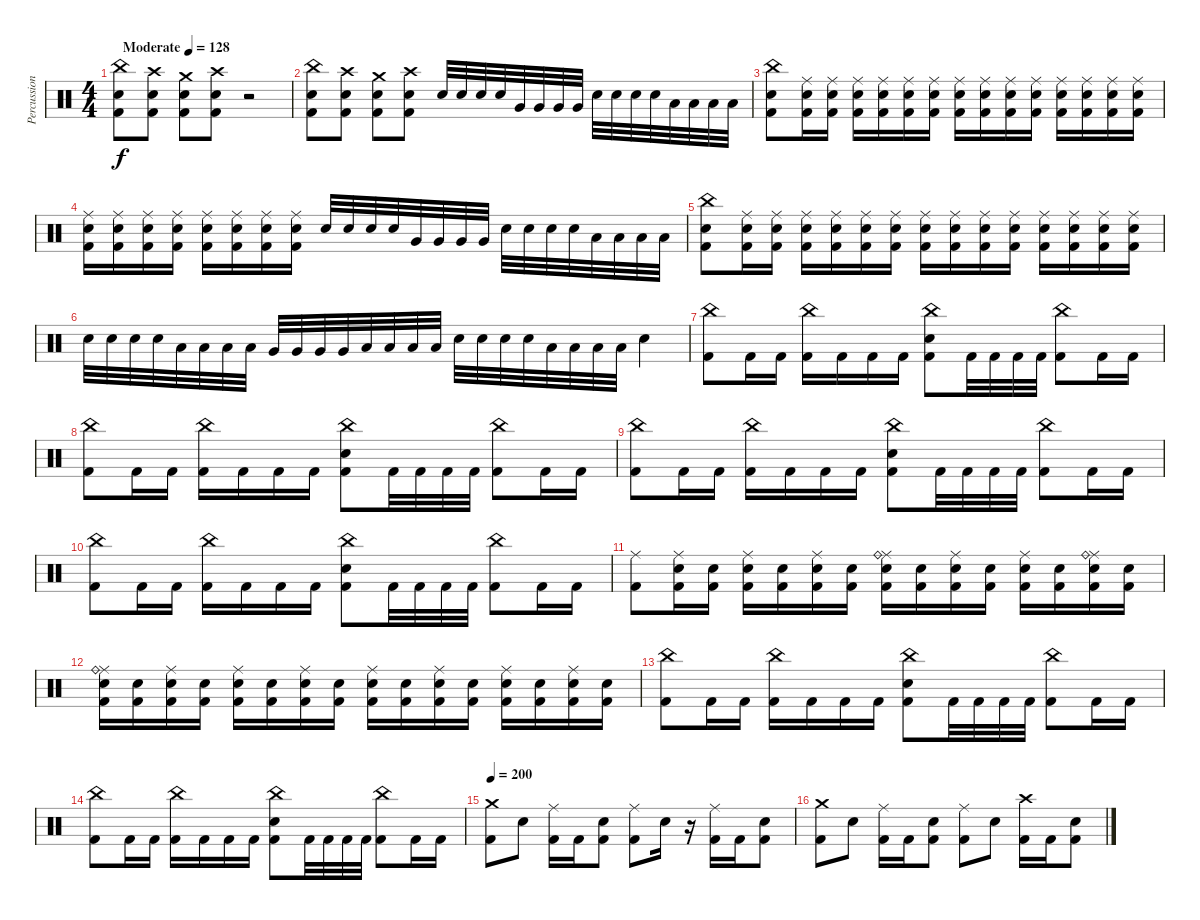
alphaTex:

\track ("Percussions" "Percussion") {instrument percussion}
\staff {score}
\articulation defaults
\ts (4 4)
\tempo (128 "Moderate")
\clef neutral
\ks c
("China (hit)" "Electric Snare (hit)" "Kick (hit) 2").8{dy f} ("Crash high (hit)" "Electric Snare (hit)" "Kick (hit) 2").8 ("Crash medium (hit)" "Electric Snare (hit)" "Kick (hit) 2").8 ("Crash high (hit)" "Electric Snare (hit)" "Kick (hit) 2").8 r.2 |
("China (hit)" "Electric Snare (hit)" "Kick (hit) 2").8 ("Crash high (hit)" "Electric Snare (hit)" "Kick (hit) 2").8 ("Crash medium (hit)" "Electric Snare (hit)" "Kick (hit) 2").8 ("Crash high (hit)" "Electric Snare (hit)" "Kick (hit) 2").8 "Electric Snare (hit)".32 "Electric Snare (hit)".32 "Electric Snare (hit)".32 "Electric Snare (hit)".32 "Very Low Tom (hit)".32 "Very Low Tom (hit)".32 "Very Low Tom (hit)".32 "Very Low Tom (hit)".32 "Electric Snare (hit)".32 "Electric Snare (hit)".32 "Electric Snare (hit)".32 "Electric Snare (hit)".32 "Low Floor Tom (hit)".32 "Low Floor Tom (hit)".32 "Low Floor Tom (hit)".32 "Low Floor Tom (hit)".32 |
("China (hit)" "Electric Snare (hit)" "Kick (hit) 2").8 ("Ride (middle)" "Electric Snare (hit)" "Kick (hit) 2").16 ("Ride (middle)" "Electric Snare (hit)" "Kick (hit) 2").16 ("Ride (middle)" "Electric Snare (hit)" "Kick (hit) 2").16 ("Ride (middle)" "Electric Snare (hit)" "Kick (hit) 2").16 ("Ride (middle)" "Electric Snare (hit)" "Kick (hit) 2").16 ("Ride (middle)" "Electric Snare (hit)" "Kick (hit) 2").16 ("Ride (middle)" "Electric Snare (hit)" "Kick (hit) 2").16 ("Ride (middle)" "Electric Snare (hit)" "Kick (hit) 2").16 ("Ride (middle)" "Electric Snare (hit)" "Kick (hit) 2").16 ("Ride (middle)" "Electric Snare (hit)" "Kick (hit) 2").16 ("Ride (middle)" "Electric Snare (hit)" "Kick (hit) 2").16 ("Ride (middle)" "Electric Snare (hit)" "Kick (hit) 2").16 ("Ride (middle)" "Electric Snare (hit)" "Kick (hit) 2").16 ("Ride (middle)" "Electric Snare (hit)" "Kick (hit) 2").16 |
("Ride (middle)" "Electric Snare (hit)" "Kick (hit) 2").16 ("Ride (middle)" "Electric Snare (hit)" "Kick (hit) 2").16 ("Ride (middle)" "Electric Snare (hit)" "Kick (hit) 2").16 ("Ride (middle)" "Electric Snare (hit)" "Kick (hit) 2").16 ("Ride (middle)" "Electric Snare (hit)" "Kick (hit) 2").16 ("Ride (middle)" "Electric Snare (hit)" "Kick (hit) 2").16 ("Ride (middle)" "Electric Snare (hit)" "Kick (hit) 2").16 ("Ride (middle)" "Electric Snare (hit)" "Kick (hit) 2").16 "Electric Snare (hit)".32 "Electric Snare (hit)".32 "Electric Snare (hit)".32 "Electric Snare (hit)".32 "Very Low Tom (hit)".32 "Very Low Tom (hit)".32 "Very Low Tom (hit)".32 "Very Low Tom (hit)".32 "Electric Snare (hit)".32 "Electric Snare (hit)".32 "Electric Snare (hit)".32 "Electric Snare (hit)".32 "Low Floor Tom (hit)".32 "Low Floor Tom (hit)".32 "Low Floor Tom (hit)".32 "Low Floor Tom (hit)".32 |
("China (hit)" "Electric Snare (hit)" "Kick (hit) 2").8 ("Ride (middle)" "Electric Snare (hit)" "Kick (hit) 2").16 ("Ride (middle)" "Electric Snare (hit)" "Kick (hit) 2").16 ("Ride (middle)" "Electric Snare (hit)" "Kick (hit) 2").16 ("Ride (middle)" "Electric Snare (hit)" "Kick (hit) 2").16 ("Ride (middle)" "Electric Snare (hit)" "Kick (hit) 2").16 ("Ride (middle)" "Electric Snare (hit)" "Kick (hit) 2").16 ("Ride (middle)" "Electric Snare (hit)" "Kick (hit) 2").16 ("Ride (middle)" "Electric Snare (hit)" "Kick (hit) 2").16 ("Ride (middle)" "Electric Snare (hit)" "Kick (hit) 2").16 ("Ride (middle)" "Electric Snare (hit)" "Kick (hit) 2").16 ("Ride (middle)" "Electric Snare (hit)" "Kick (hit) 2").16 ("Ride (middle)" "Electric Snare (hit)" "Kick (hit) 2").16 ("Ride (middle)" "Electric Snare (hit)" "Kick (hit) 2").16 ("Ride (middle)" "Electric Snare (hit)" "Kick (hit) 2").16 |
"Electric Snare (hit)".32 "Electric Snare (hit)".32 "Electric Snare (hit)".32 "Electric Snare (hit)".32 "Low Tom (hit)".32 "Low Tom (hit)".32 "Low Tom (hit)".32 "Low Tom (hit)".32 "Very Low Tom (hit)".32 "Very Low Tom (hit)".32 "Very Low Tom (hit)".32 "Very Low Tom (hit)".32 "Low Floor Tom (hit)".32 "Low Floor Tom (hit)".32 "Low Floor Tom (hit)".32 "Low Floor Tom (hit)".32 "Electric Snare (hit)".32 "Electric Snare (hit)".32 "Electric Snare (hit)".32 "Electric Snare (hit)".32 "Low Tom (hit)".32 "Low Tom (hit)".32 "Low Tom (hit)".32 "Low Tom (hit)".32 "Electric Snare (hit)".4 |
("China (hit)" "Kick (hit) 2").8 "Kick (hit) 2".16 "Kick (hit) 2".16 ("China (hit)" "Kick (hit) 2").16 "Kick (hit) 2".16 "Kick (hit) 2".16 "Kick (hit) 2".16 ("China (hit)" "Electric Snare (hit)" "Kick (hit) 2").8 "Kick (hit) 2".32 "Kick (hit) 2".32 "Kick (hit) 2".32 "Kick (hit) 2".32 ("China (hit)" "Kick (hit) 2").8 "Kick (hit) 2".16 "Kick (hit) 2".16 |
("China (hit)" "Kick (hit) 2").8 "Kick (hit) 2".16 "Kick (hit) 2".16 ("China (hit)" "Kick (hit) 2").16 "Kick (hit) 2".16 "Kick (hit) 2".16 "Kick (hit) 2".16 ("China (hit)" "Electric Snare (hit)" "Kick (hit) 2").8 "Kick (hit) 2".32 "Kick (hit) 2".32 "Kick (hit) 2".32 "Kick (hit) 2".32 ("China (hit)" "Kick (hit) 2").8 "Kick (hit) 2".16 "Kick (hit) 2".16 |
("China (hit)" "Kick (hit) 2").8 "Kick (hit) 2".16 "Kick (hit) 2".16 ("China (hit)" "Kick (hit) 2").16 "Kick (hit) 2".16 "Kick (hit) 2".16 "Kick (hit) 2".16 ("China (hit)" "Electric Snare (hit)" "Kick (hit) 2").8 "Kick (hit) 2".32 "Kick (hit) 2".32 "Kick (hit) 2".32 "Kick (hit) 2".32 ("China (hit)" "Kick (hit) 2").8 "Kick (hit) 2".16 "Kick (hit) 2".16 |
("China (hit)" "Kick (hit) 2").8 "Kick (hit) 2".16 "Kick (hit) 2".16 ("China (hit)" "Kick (hit) 2").16 "Kick (hit) 2".16 "Kick (hit) 2".16 "Kick (hit) 2".16 ("China (hit)" "Electric Snare (hit)" "Kick (hit) 2").8 "Kick (hit) 2".32 "Kick (hit) 2".32 "Kick (hit) 2".32 "Kick (hit) 2".32 ("China (hit)" "Kick (hit) 2").8 "Kick (hit) 2".16 "Kick (hit) 2".16 |
("Ride (middle)" "Kick (hit) 2").8 ("Ride (middle)" "Electric Snare (hit)" "Kick (hit) 2").16 ("Electric Snare (hit)" "Kick (hit) 2").16 ("Ride (middle)" "Electric Snare (hit)" "Kick (hit) 2").16 ("Electric Snare (hit)" "Kick (hit) 2").16 ("Ride (middle)" "Electric Snare (hit)" "Kick (hit) 2").16 ("Electric Snare (hit)" "Kick (hit) 2").16 ("Ride (middle)" "Ride (bell)" "Electric Snare (hit)" "Kick (hit) 2").16 ("Electric Snare (hit)" "Kick (hit) 2").16 ("Ride (middle)" "Electric Snare (hit)" "Kick (hit) 2").16 ("Electric Snare (hit)" "Kick (hit) 2").16 ("Ride (middle)" "Electric Snare (hit)" "Kick (hit) 2").16 ("Electric Snare (hit)" "Kick (hit) 2").16 ("Ride (middle)" "Ride (bell)" "Electric Snare (hit)" "Kick (hit) 2").16 ("Electric Snare (hit)" "Kick (hit) 2").16 |
("Ride (middle)" "Ride (bell)" "Electric Snare (hit)" "Kick (hit) 2").16 ("Electric Snare (hit)" "Kick (hit) 2").16 ("Ride (middle)" "Electric Snare (hit)" "Kick (hit) 2").16 ("Electric Snare (hit)" "Kick (hit) 2").16 ("Ride (middle)" "Electric Snare (hit)" "Kick (hit) 2").16 ("Electric Snare (hit)" "Kick (hit) 2").16 ("Ride (middle)" "Electric Snare (hit)" "Kick (hit) 2").16 ("Electric Snare (hit)" "Kick (hit) 2").16 ("Ride (middle)" "Electric Snare (hit)" "Kick (hit) 2").16 ("Electric Snare (hit)" "Kick (hit) 2").16 ("Ride (middle)" "Electric Snare (hit)" "Kick (hit) 2").16 ("Electric Snare (hit)" "Kick (hit) 2").16 ("Ride (middle)" "Electric Snare (hit)" "Kick (hit) 2").16 ("Electric Snare (hit)" "Kick (hit) 2").16 ("Ride (middle)" "Electric Snare (hit)" "Kick (hit) 2").16 ("Electric Snare (hit)" "Kick (hit) 2").16 |
("China (hit)" "Kick (hit) 2").8 "Kick (hit) 2".16 "Kick (hit) 2".16 ("China (hit)" "Kick (hit) 2").16 "Kick (hit) 2".16 "Kick (hit) 2".16 "Kick (hit) 2".16 ("China (hit)" "Electric Snare (hit)" "Kick (hit) 2").8 "Kick (hit) 2".32 "Kick (hit) 2".32 "Kick (hit) 2".32 "Kick (hit) 2".32 ("China (hit)" "Kick (hit) 2").8 "Kick (hit) 2".16 "Kick (hit) 2".16 |
("China (hit)" "Kick (hit) 2").8 "Kick (hit) 2".16 "Kick (hit) 2".16 ("China (hit)" "Kick (hit) 2").16 "Kick (hit) 2".16 "Kick (hit) 2".16 "Kick (hit) 2".16 ("China (hit)" "Electric Snare (hit)" "Kick (hit) 2").8 "Kick (hit) 2".32 "Kick (hit) 2".32 "Kick (hit) 2".32 "Kick (hit) 2".32 ("China (hit)" "Kick (hit) 2").8 "Kick (hit) 2".16 "Kick (hit) 2".16 |
\tempo 200
("Crash medium (hit)" "Kick (hit) 2").8 "Electric Snare (hit)".8 ("Ride (middle)" "Kick (hit) 2").16 "Kick (hit) 2".16 ("Electric Snare (hit)" "Kick (hit) 2").8 ("Ride (middle)" "Kick (hit) 2").8 "Electric Snare (hit)".16 r.16 ("Ride (middle)" "Kick (hit) 2").16 "Kick (hit) 2".16 ("Electric Snare (hit)" "Kick (hit) 2").8 |
("Crash medium (hit)" "Kick (hit) 2").8 "Electric Snare (hit)".8 ("Ride (middle)" "Kick (hit) 2").16 "Kick (hit) 2".16 ("Electric Snare (hit)" "Kick (hit) 2").8 ("Ride (middle)" "Kick (hit) 2").8 "Electric Snare (hit)".8 ("Crash high (hit)" "Kick (hit) 2").16 "Kick (hit) 2".16 ("Electric Snare (hit)" "Kick (hit) 2").8
